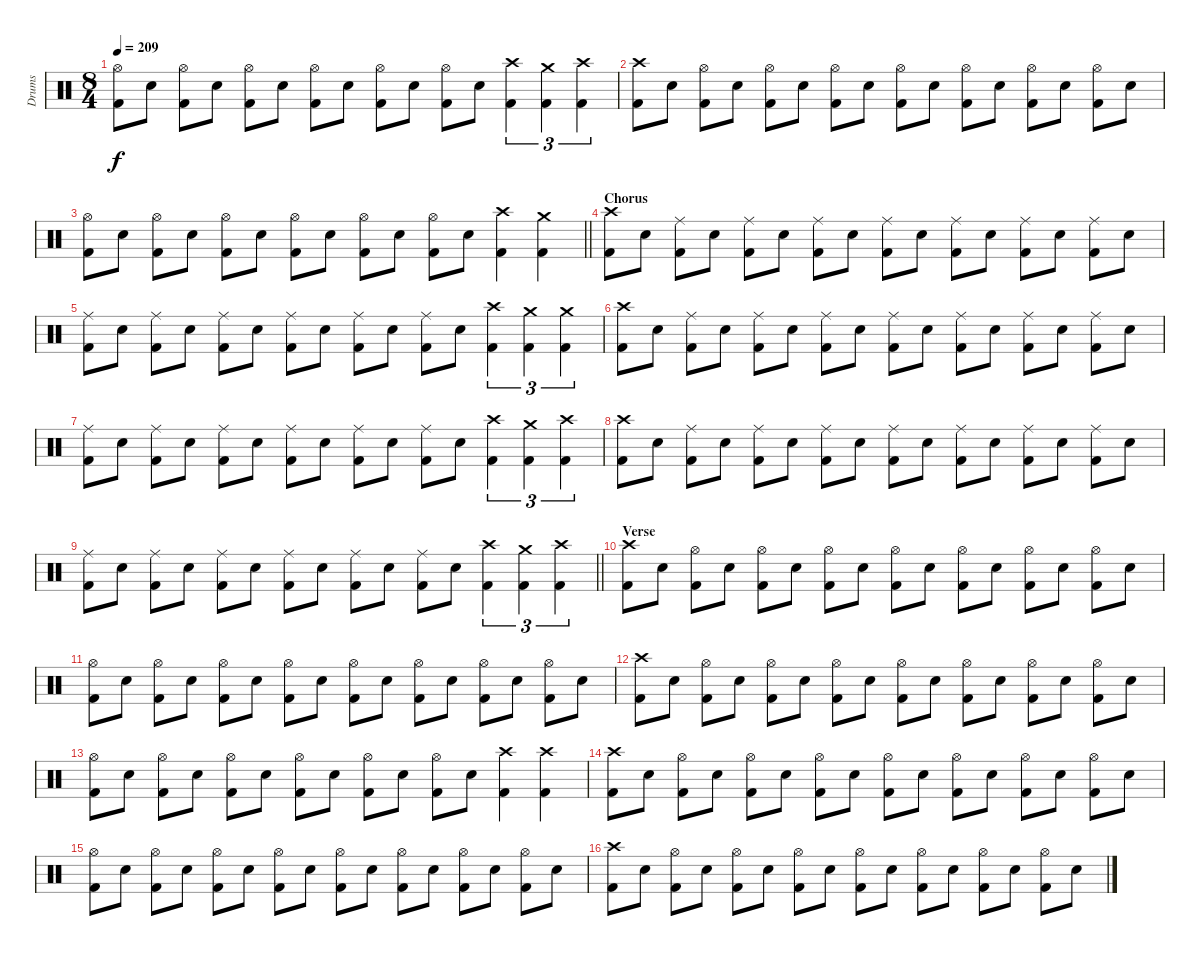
\track ("Drums" "Drums") {instrument percussion}
\staff {score}
\articulation defaults
\ts (8 4)
\tempo 209
\clef neutral
\ks c
("Hi-Hat (open)" "Kick (hit) 2").8{dy f} "Snare (hit) 2".8 ("Hi-Hat (open)" "Kick (hit) 2").8 "Snare (hit) 2".8 ("Hi-Hat (open)" "Kick (hit) 2").8 "Snare (hit) 2".8 ("Hi-Hat (open)" "Kick (hit) 2").8 "Snare (hit) 2".8 ("Hi-Hat (open)" "Kick (hit) 2").8 "Snare (hit) 2".8 ("Hi-Hat (open)" "Kick (hit) 2").8 "Snare (hit) 2".8 ("Crash high (hit)" "Kick (hit) 2").4{tu (3 2)} ("Crash medium (hit)" "Kick (hit) 2").4{tu (3 2)} ("Crash high (hit)" "Kick (hit) 2").4{tu (3 2)} |
("Crash high (hit)" "Kick (hit) 2").8 "Snare (hit) 2".8 ("Hi-Hat (open)" "Kick (hit) 2").8 "Snare (hit) 2".8 ("Hi-Hat (open)" "Kick (hit) 2").8 "Snare (hit) 2".8 ("Hi-Hat (open)" "Kick (hit) 2").8 "Snare (hit) 2".8 ("Hi-Hat (open)" "Kick (hit) 2").8 "Snare (hit) 2".8 ("Hi-Hat (open)" "Kick (hit) 2").8 "Snare (hit) 2".8 ("Hi-Hat (open)" "Kick (hit) 2").8 "Snare (hit) 2".8 ("Hi-Hat (open)" "Kick (hit) 2").8 "Snare (hit) 2".8 |
\barLineRight lightlight
("Hi-Hat (open)" "Kick (hit) 2").8 "Snare (hit) 2".8 ("Hi-Hat (open)" "Kick (hit) 2").8 "Snare (hit) 2".8 ("Hi-Hat (open)" "Kick (hit) 2").8 "Snare (hit) 2".8 ("Hi-Hat (open)" "Kick (hit) 2").8 "Snare (hit) 2".8 ("Hi-Hat (open)" "Kick (hit) 2").8 "Snare (hit) 2".8 ("Hi-Hat (open)" "Kick (hit) 2").8 "Snare (hit) 2".8 ("Crash high (hit)" "Kick (hit) 2").4 ("Crash medium (hit)" "Kick (hit) 2").4 |
\section ("" "Chorus")
("Crash high (hit)" "Kick (hit) 2").8 "Snare (hit) 2".8 ("Ride (middle)" "Kick (hit) 2").8 "Snare (hit) 2".8 ("Ride (middle)" "Kick (hit) 2").8 "Snare (hit) 2".8 ("Ride (middle)" "Kick (hit) 2").8 "Snare (hit) 2".8 ("Ride (middle)" "Kick (hit) 2").8 "Snare (hit) 2".8 ("Ride (middle)" "Kick (hit) 2").8 "Snare (hit) 2".8 ("Ride (middle)" "Kick (hit) 2").8 "Snare (hit) 2".8 ("Ride (middle)" "Kick (hit) 2").8 "Snare (hit) 2".8 |
("Ride (middle)" "Kick (hit) 2").8 "Snare (hit) 2".8 ("Ride (middle)" "Kick (hit) 2").8 "Snare (hit) 2".8 ("Ride (middle)" "Kick (hit) 2").8 "Snare (hit) 2".8 ("Ride (middle)" "Kick (hit) 2").8 "Snare (hit) 2".8 ("Ride (middle)" "Kick (hit) 2").8 "Snare (hit) 2".8 ("Ride (middle)" "Kick (hit) 2").8 "Snare (hit) 2".8 ("Crash high (hit)" "Kick (hit) 2").4{tu (3 2)} ("Crash medium (hit)" "Kick (hit) 2").4{tu (3 2)} ("Crash medium (hit)" "Kick (hit) 2").4{tu (3 2)} |
("Crash high (hit)" "Kick (hit) 2").8 "Snare (hit) 2".8 ("Ride (middle)" "Kick (hit) 2").8 "Snare (hit) 2".8 ("Ride (middle)" "Kick (hit) 2").8 "Snare (hit) 2".8 ("Ride (middle)" "Kick (hit) 2").8 "Snare (hit) 2".8 ("Ride (middle)" "Kick (hit) 2").8 "Snare (hit) 2".8 ("Ride (middle)" "Kick (hit) 2").8 "Snare (hit) 2".8 ("Ride (middle)" "Kick (hit) 2").8 "Snare (hit) 2".8 ("Ride (middle)" "Kick (hit) 2").8 "Snare (hit) 2".8 |
("Ride (middle)" "Kick (hit) 2").8 "Snare (hit) 2".8 ("Ride (middle)" "Kick (hit) 2").8 "Snare (hit) 2".8 ("Ride (middle)" "Kick (hit) 2").8 "Snare (hit) 2".8 ("Ride (middle)" "Kick (hit) 2").8 "Snare (hit) 2".8 ("Ride (middle)" "Kick (hit) 2").8 "Snare (hit) 2".8 ("Ride (middle)" "Kick (hit) 2").8 "Snare (hit) 2".8 ("Crash high (hit)" "Kick (hit) 2").4{tu (3 2)} ("Crash medium (hit)" "Kick (hit) 2").4{tu (3 2)} ("Crash high (hit)" "Kick (hit) 2").4{tu (3 2)} |
("Crash high (hit)" "Kick (hit) 2").8 "Snare (hit) 2".8 ("Ride (middle)" "Kick (hit) 2").8 "Snare (hit) 2".8 ("Ride (middle)" "Kick (hit) 2").8 "Snare (hit) 2".8 ("Ride (middle)" "Kick (hit) 2").8 "Snare (hit) 2".8 ("Ride (middle)" "Kick (hit) 2").8 "Snare (hit) 2".8 ("Ride (middle)" "Kick (hit) 2").8 "Snare (hit) 2".8 ("Ride (middle)" "Kick (hit) 2").8 "Snare (hit) 2".8 ("Ride (middle)" "Kick (hit) 2").8 "Snare (hit) 2".8 |
\barLineRight lightlight
("Ride (middle)" "Kick (hit) 2").8 "Snare (hit) 2".8 ("Ride (middle)" "Kick (hit) 2").8 "Snare (hit) 2".8 ("Ride (middle)" "Kick (hit) 2").8 "Snare (hit) 2".8 ("Ride (middle)" "Kick (hit) 2").8 "Snare (hit) 2".8 ("Ride (middle)" "Kick (hit) 2").8 "Snare (hit) 2".8 ("Ride (middle)" "Kick (hit) 2").8 "Snare (hit) 2".8 ("Crash high (hit)" "Kick (hit) 2").4{tu (3 2)} ("Crash medium (hit)" "Kick (hit) 2").4{tu (3 2)} ("Crash high (hit)" "Kick (hit) 2").4{tu (3 2)} |
\section ("" "Verse")
("Crash high (hit)" "Kick (hit) 2").8 "Snare (hit) 2".8 ("Hi-Hat (open)" "Kick (hit) 2").8 "Snare (hit) 2".8 ("Hi-Hat (open)" "Kick (hit) 2").8 "Snare (hit) 2".8 ("Hi-Hat (open)" "Kick (hit) 2").8 "Snare (hit) 2".8 ("Hi-Hat (open)" "Kick (hit) 2").8 "Snare (hit) 2".8 ("Hi-Hat (open)" "Kick (hit) 2").8 "Snare (hit) 2".8 ("Hi-Hat (open)" "Kick (hit) 2").8 "Snare (hit) 2".8 ("Hi-Hat (open)" "Kick (hit) 2").8 "Snare (hit) 2".8 |
("Hi-Hat (open)" "Kick (hit) 2").8 "Snare (hit) 2".8 ("Hi-Hat (open)" "Kick (hit) 2").8 "Snare (hit) 2".8 ("Hi-Hat (open)" "Kick (hit) 2").8 "Snare (hit) 2".8 ("Hi-Hat (open)" "Kick (hit) 2").8 "Snare (hit) 2".8 ("Hi-Hat (open)" "Kick (hit) 2").8 "Snare (hit) 2".8 ("Hi-Hat (open)" "Kick (hit) 2").8 "Snare (hit) 2".8 ("Hi-Hat (open)" "Kick (hit) 2").8 "Snare (hit) 2".8 ("Hi-Hat (open)" "Kick (hit) 2").8 "Snare (hit) 2".8 |
("Crash high (hit)" "Kick (hit) 2").8 "Snare (hit) 2".8 ("Hi-Hat (open)" "Kick (hit) 2").8 "Snare (hit) 2".8 ("Hi-Hat (open)" "Kick (hit) 2").8 "Snare (hit) 2".8 ("Hi-Hat (open)" "Kick (hit) 2").8 "Snare (hit) 2".8 ("Hi-Hat (open)" "Kick (hit) 2").8 "Snare (hit) 2".8 ("Hi-Hat (open)" "Kick (hit) 2").8 "Snare (hit) 2".8 ("Hi-Hat (open)" "Kick (hit) 2").8 "Snare (hit) 2".8 ("Hi-Hat (open)" "Kick (hit) 2").8 "Snare (hit) 2".8 |
("Hi-Hat (open)" "Kick (hit) 2").8 "Snare (hit) 2".8 ("Hi-Hat (open)" "Kick (hit) 2").8 "Snare (hit) 2".8 ("Hi-Hat (open)" "Kick (hit) 2").8 "Snare (hit) 2".8 ("Hi-Hat (open)" "Kick (hit) 2").8 "Snare (hit) 2".8 ("Hi-Hat (open)" "Kick (hit) 2").8 "Snare (hit) 2".8 ("Hi-Hat (open)" "Kick (hit) 2").8 "Snare (hit) 2".8 ("Crash high (hit)" "Kick (hit) 2").4 ("Crash high (hit)" "Kick (hit) 2").4 |
("Crash high (hit)" "Kick (hit) 2").8 "Snare (hit) 2".8 ("Hi-Hat (open)" "Kick (hit) 2").8 "Snare (hit) 2".8 ("Hi-Hat (open)" "Kick (hit) 2").8 "Snare (hit) 2".8 ("Hi-Hat (open)" "Kick (hit) 2").8 "Snare (hit) 2".8 ("Hi-Hat (open)" "Kick (hit) 2").8 "Snare (hit) 2".8 ("Hi-Hat (open)" "Kick (hit) 2").8 "Snare (hit) 2".8 ("Hi-Hat (open)" "Kick (hit) 2").8 "Snare (hit) 2".8 ("Hi-Hat (open)" "Kick (hit) 2").8 "Snare (hit) 2".8 |
("Hi-Hat (open)" "Kick (hit) 2").8 "Snare (hit) 2".8 ("Hi-Hat (open)" "Kick (hit) 2").8 "Snare (hit) 2".8 ("Hi-Hat (open)" "Kick (hit) 2").8 "Snare (hit) 2".8 ("Hi-Hat (open)" "Kick (hit) 2").8 "Snare (hit) 2".8 ("Hi-Hat (open)" "Kick (hit) 2").8 "Snare (hit) 2".8 ("Hi-Hat (open)" "Kick (hit) 2").8 "Snare (hit) 2".8 ("Hi-Hat (open)" "Kick (hit) 2").8 "Snare (hit) 2".8 ("Hi-Hat (open)" "Kick (hit) 2").8 "Snare (hit) 2".8 |
("Crash high (hit)" "Kick (hit) 2").8 "Snare (hit) 2".8 ("Hi-Hat (open)" "Kick (hit) 2").8 "Snare (hit) 2".8 ("Hi-Hat (open)" "Kick (hit) 2").8 "Snare (hit) 2".8 ("Hi-Hat (open)" "Kick (hit) 2").8 "Snare (hit) 2".8 ("Hi-Hat (open)" "Kick (hit) 2").8 "Snare (hit) 2".8 ("Hi-Hat (open)" "Kick (hit) 2").8 "Snare (hit) 2".8 ("Hi-Hat (open)" "Kick (hit) 2").8 "Snare (hit) 2".8 ("Hi-Hat (open)" "Kick (hit) 2").8 "Snare (hit) 2".8
